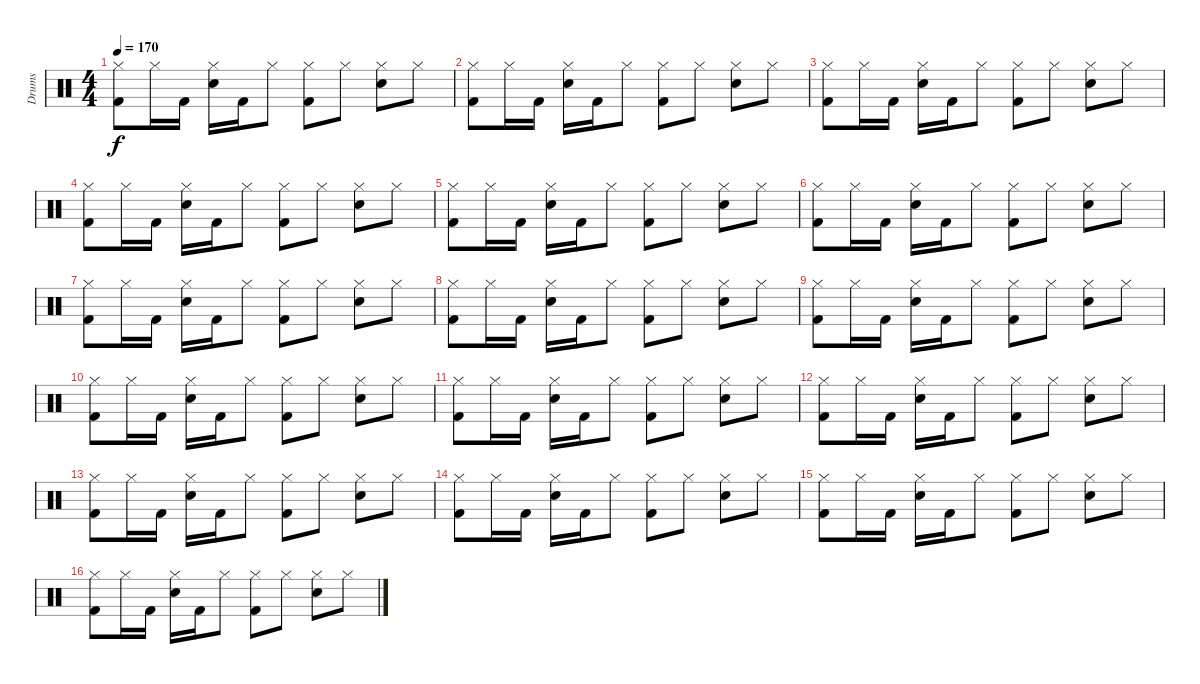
\track ("Drums" "Drums") {instrument percussion}
\staff {score}
\articulation defaults
\ts (4 4)
\tempo 170
\clef neutral
\ks c
("Kick (hit) 2" "Hi-Hat (closed)").8{dy f} "Hi-Hat (closed)".16 "Kick (hit) 2".16 ("Snare (hit) 2" "Hi-Hat (closed)").16 "Kick (hit) 2".16 "Hi-Hat (closed)".8 ("Kick (hit) 2" "Hi-Hat (closed)").8 "Hi-Hat (closed)".8 ("Snare (hit) 2" "Hi-Hat (closed)").8 "Hi-Hat (closed)".8 |
("Kick (hit) 2" "Hi-Hat (closed)").8 "Hi-Hat (closed)".16 "Kick (hit) 2".16 ("Snare (hit) 2" "Hi-Hat (closed)").16 "Kick (hit) 2".16 "Hi-Hat (closed)".8 ("Kick (hit) 2" "Hi-Hat (closed)").8 "Hi-Hat (closed)".8 ("Snare (hit) 2" "Hi-Hat (closed)").8 "Hi-Hat (closed)".8 |
("Kick (hit) 2" "Hi-Hat (closed)").8 "Hi-Hat (closed)".16 "Kick (hit) 2".16 ("Snare (hit) 2" "Hi-Hat (closed)").16 "Kick (hit) 2".16 "Hi-Hat (closed)".8 ("Kick (hit) 2" "Hi-Hat (closed)").8 "Hi-Hat (closed)".8 ("Snare (hit) 2" "Hi-Hat (closed)").8 "Hi-Hat (closed)".8 |
("Kick (hit) 2" "Hi-Hat (closed)").8 "Hi-Hat (closed)".16 "Kick (hit) 2".16 ("Snare (hit) 2" "Hi-Hat (closed)").16 "Kick (hit) 2".16 "Hi-Hat (closed)".8 ("Kick (hit) 2" "Hi-Hat (closed)").8 "Hi-Hat (closed)".8 ("Snare (hit) 2" "Hi-Hat (closed)").8 "Hi-Hat (closed)".8 |
("Kick (hit) 2" "Hi-Hat (closed)").8 "Hi-Hat (closed)".16 "Kick (hit) 2".16 ("Snare (hit) 2" "Hi-Hat (closed)").16 "Kick (hit) 2".16 "Hi-Hat (closed)".8 ("Kick (hit) 2" "Hi-Hat (closed)").8 "Hi-Hat (closed)".8 ("Snare (hit) 2" "Hi-Hat (closed)").8 "Hi-Hat (closed)".8 |
("Kick (hit) 2" "Hi-Hat (closed)").8 "Hi-Hat (closed)".16 "Kick (hit) 2".16 ("Snare (hit) 2" "Hi-Hat (closed)").16 "Kick (hit) 2".16 "Hi-Hat (closed)".8 ("Kick (hit) 2" "Hi-Hat (closed)").8 "Hi-Hat (closed)".8 ("Snare (hit) 2" "Hi-Hat (closed)").8 "Hi-Hat (closed)".8 |
("Kick (hit) 2" "Hi-Hat (closed)").8 "Hi-Hat (closed)".16 "Kick (hit) 2".16 ("Snare (hit) 2" "Hi-Hat (closed)").16 "Kick (hit) 2".16 "Hi-Hat (closed)".8 ("Kick (hit) 2" "Hi-Hat (closed)").8 "Hi-Hat (closed)".8 ("Snare (hit) 2" "Hi-Hat (closed)").8 "Hi-Hat (closed)".8 |
("Kick (hit) 2" "Hi-Hat (closed)").8 "Hi-Hat (closed)".16 "Kick (hit) 2".16 ("Snare (hit) 2" "Hi-Hat (closed)").16 "Kick (hit) 2".16 "Hi-Hat (closed)".8 ("Kick (hit) 2" "Hi-Hat (closed)").8 "Hi-Hat (closed)".8 ("Snare (hit) 2" "Hi-Hat (closed)").8 "Hi-Hat (closed)".8 |
("Kick (hit) 2" "Hi-Hat (closed)").8 "Hi-Hat (closed)".16 "Kick (hit) 2".16 ("Snare (hit) 2" "Hi-Hat (closed)").16 "Kick (hit) 2".16 "Hi-Hat (closed)".8 ("Kick (hit) 2" "Hi-Hat (closed)").8 "Hi-Hat (closed)".8 ("Snare (hit) 2" "Hi-Hat (closed)").8 "Hi-Hat (closed)".8 |
("Kick (hit) 2" "Hi-Hat (closed)").8 "Hi-Hat (closed)".16 "Kick (hit) 2".16 ("Snare (hit) 2" "Hi-Hat (closed)").16 "Kick (hit) 2".16 "Hi-Hat (closed)".8 ("Kick (hit) 2" "Hi-Hat (closed)").8 "Hi-Hat (closed)".8 ("Snare (hit) 2" "Hi-Hat (closed)").8 "Hi-Hat (closed)".8 |
("Kick (hit) 2" "Hi-Hat (closed)").8 "Hi-Hat (closed)".16 "Kick (hit) 2".16 ("Snare (hit) 2" "Hi-Hat (closed)").16 "Kick (hit) 2".16 "Hi-Hat (closed)".8 ("Kick (hit) 2" "Hi-Hat (closed)").8 "Hi-Hat (closed)".8 ("Snare (hit) 2" "Hi-Hat (closed)").8 "Hi-Hat (closed)".8 |
("Kick (hit) 2" "Hi-Hat (closed)").8 "Hi-Hat (closed)".16 "Kick (hit) 2".16 ("Snare (hit) 2" "Hi-Hat (closed)").16 "Kick (hit) 2".16 "Hi-Hat (closed)".8 ("Kick (hit) 2" "Hi-Hat (closed)").8 "Hi-Hat (closed)".8 ("Snare (hit) 2" "Hi-Hat (closed)").8 "Hi-Hat (closed)".8 |
("Kick (hit) 2" "Hi-Hat (closed)").8 "Hi-Hat (closed)".16 "Kick (hit) 2".16 ("Snare (hit) 2" "Hi-Hat (closed)").16 "Kick (hit) 2".16 "Hi-Hat (closed)".8 ("Kick (hit) 2" "Hi-Hat (closed)").8 "Hi-Hat (closed)".8 ("Snare (hit) 2" "Hi-Hat (closed)").8 "Hi-Hat (closed)".8 |
("Kick (hit) 2" "Hi-Hat (closed)").8 "Hi-Hat (closed)".16 "Kick (hit) 2".16 ("Snare (hit) 2" "Hi-Hat (closed)").16 "Kick (hit) 2".16 "Hi-Hat (closed)".8 ("Kick (hit) 2" "Hi-Hat (closed)").8 "Hi-Hat (closed)".8 ("Snare (hit) 2" "Hi-Hat (closed)").8 "Hi-Hat (closed)".8 |
("Kick (hit) 2" "Hi-Hat (closed)").8 "Hi-Hat (closed)".16 "Kick (hit) 2".16 ("Snare (hit) 2" "Hi-Hat (closed)").16 "Kick (hit) 2".16 "Hi-Hat (closed)".8 ("Kick (hit) 2" "Hi-Hat (closed)").8 "Hi-Hat (closed)".8 ("Snare (hit) 2" "Hi-Hat (closed)").8 "Hi-Hat (closed)".8 |
("Kick (hit) 2" "Hi-Hat (closed)").8 "Hi-Hat (closed)".16 "Kick (hit) 2".16 ("Snare (hit) 2" "Hi-Hat (closed)").16 "Kick (hit) 2".16 "Hi-Hat (closed)".8 ("Kick (hit) 2" "Hi-Hat (closed)").8 "Hi-Hat (closed)".8 ("Snare (hit) 2" "Hi-Hat (closed)").8 "Hi-Hat (closed)".8
